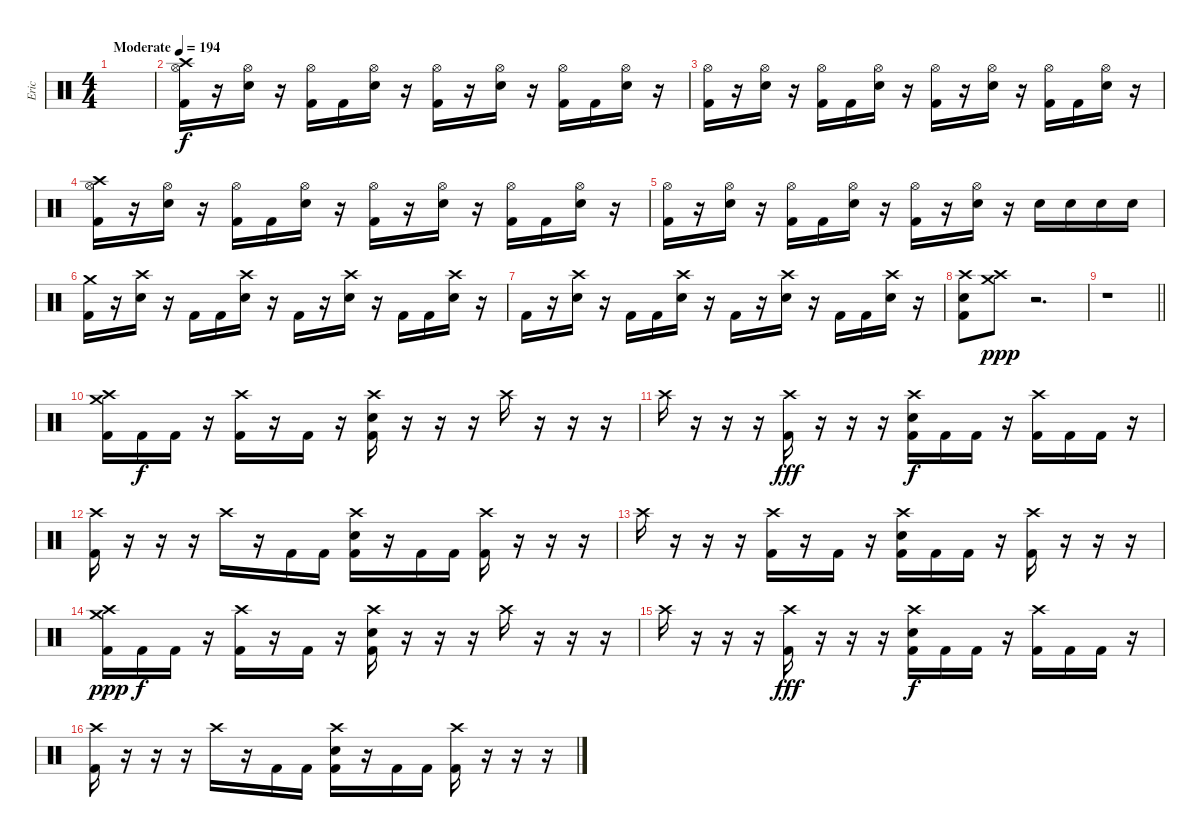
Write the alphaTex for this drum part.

\track ("Eric" "Eric") {instrument percussion}
\staff {score}
\articulation defaults
\ts (4 4)
\tempo (194 "Moderate")
\clef neutral
\ks c
|
("Crash high (hit)" "Hi-Hat (open)" "Kick (hit) 2").16 r.16 ("Hi-Hat (open)" "Electric Snare (hit)").16 r.16 ("Hi-Hat (open)" "Kick (hit) 2").16 "Kick (hit) 2".16 ("Hi-Hat (open)" "Electric Snare (hit)").16 r.16 ("Hi-Hat (open)" "Kick (hit) 2").16 r.16 ("Hi-Hat (open)" "Electric Snare (hit)").16 r.16 ("Hi-Hat (open)" "Kick (hit) 2").16 "Kick (hit) 2".16 ("Hi-Hat (open)" "Electric Snare (hit)").16 r.16 |
("Hi-Hat (open)" "Kick (hit) 2").16 r.16 ("Hi-Hat (open)" "Electric Snare (hit)").16 r.16 ("Hi-Hat (open)" "Kick (hit) 2").16 "Kick (hit) 2".16 ("Hi-Hat (open)" "Electric Snare (hit)").16 r.16 ("Hi-Hat (open)" "Kick (hit) 2").16 r.16 ("Hi-Hat (open)" "Electric Snare (hit)").16 r.16 ("Hi-Hat (open)" "Kick (hit) 2").16 "Kick (hit) 2".16 ("Hi-Hat (open)" "Electric Snare (hit)").16 r.16 |
("Crash high (hit)" "Hi-Hat (open)" "Kick (hit) 2").16 r.16 ("Hi-Hat (open)" "Electric Snare (hit)").16 r.16 ("Hi-Hat (open)" "Kick (hit) 2").16 "Kick (hit) 2".16 ("Hi-Hat (open)" "Electric Snare (hit)").16 r.16 ("Hi-Hat (open)" "Kick (hit) 2").16 r.16 ("Hi-Hat (open)" "Electric Snare (hit)").16 r.16 ("Hi-Hat (open)" "Kick (hit) 2").16 "Kick (hit) 2".16 ("Hi-Hat (open)" "Electric Snare (hit)").16 r.16 |
("Hi-Hat (open)" "Kick (hit) 2").16 r.16 ("Hi-Hat (open)" "Electric Snare (hit)").16 r.16 ("Hi-Hat (open)" "Kick (hit) 2").16 "Kick (hit) 2".16 ("Hi-Hat (open)" "Electric Snare (hit)").16 r.16 ("Hi-Hat (open)" "Kick (hit) 2").16 r.16 ("Hi-Hat (open)" "Electric Snare (hit)").16 r.16 "Electric Snare (hit)".16 "Electric Snare (hit)".16 "Electric Snare (hit)".16 "Electric Snare (hit)".16 |
("Crash medium (hit)" "Kick (hit) 2").16 r.16 ("Crash high (hit)" "Electric Snare (hit)").16 r.16 "Kick (hit) 2".16 "Kick (hit) 2".16 ("Crash high (hit)" "Electric Snare (hit)").16 r.16 "Kick (hit) 2".16 r.16 ("Crash high (hit)" "Electric Snare (hit)").16 r.16 "Kick (hit) 2".16 "Kick (hit) 2".16 ("Crash high (hit)" "Electric Snare (hit)").16 r.16 |
"Kick (hit) 2".16 r.16 ("Crash high (hit)" "Electric Snare (hit)").16 r.16 "Kick (hit) 2".16 "Kick (hit) 2".16 ("Crash high (hit)" "Electric Snare (hit)").16 r.16 "Kick (hit) 2".16 r.16 ("Crash high (hit)" "Electric Snare (hit)").16 r.16 "Kick (hit) 2".16 "Kick (hit) 2".16 ("Crash high (hit)" "Electric Snare (hit)").16 r.16 |
("Crash high (hit)" "Electric Snare (hit)" "Kick (hit) 2").8 ("Crash high (hit)" "Crash medium (hit)").8{dy ppp} r.2{d} |
\barLineRight lightlight
r.1 |
\section ("" "")
("Crash medium (hit)" "Crash high (hit)" "Kick (hit) 2").16 "Kick (hit) 2".16{dy f} "Kick (hit) 2".16 r.16 ("Crash high (hit)" "Kick (hit) 2").16 r.16 "Kick (hit) 2".16 r.16 ("Crash high (hit)" "Electric Snare (hit)" "Kick (hit) 2").16 r.16 r.16 r.16 "Crash high (hit)".16 r.16 r.16 r.16 |
"Crash high (hit)".16 r.16 r.16 r.16 ("Crash high (hit)" "Kick (hit) 2").16{dy fff} r.16 r.16 r.16 ("Crash high (hit)" "Electric Snare (hit)" "Kick (hit) 2").16{dy f} "Kick (hit) 2".16 "Kick (hit) 2".16 r.16 ("Crash high (hit)" "Kick (hit) 2").16 "Kick (hit) 2".16 "Kick (hit) 2".16 r.16 |
("Crash high (hit)" "Kick (hit) 2").16 r.16 r.16 r.16 "Crash high (hit)".16 r.16 "Kick (hit) 2".16 "Kick (hit) 2".16 ("Crash high (hit)" "Electric Snare (hit)" "Kick (hit) 2").16 r.16 "Kick (hit) 2".16 "Kick (hit) 2".16 ("Crash high (hit)" "Kick (hit) 2").16 r.16 r.16 r.16 |
"Crash high (hit)".16 r.16 r.16 r.16 ("Crash high (hit)" "Kick (hit) 2").16 r.16 "Kick (hit) 2".16 r.16 ("Crash high (hit)" "Electric Snare (hit)" "Kick (hit) 2").16 "Kick (hit) 2".16 "Kick (hit) 2".16 r.16 ("Crash high (hit)" "Kick (hit) 2").16 r.16 r.16 r.16 |
("Crash medium (hit)" "Crash high (hit)" "Kick (hit) 2").16{dy ppp} "Kick (hit) 2".16{dy f} "Kick (hit) 2".16 r.16 ("Crash high (hit)" "Kick (hit) 2").16 r.16 "Kick (hit) 2".16 r.16 ("Crash high (hit)" "Electric Snare (hit)" "Kick (hit) 2").16 r.16 r.16 r.16 "Crash high (hit)".16 r.16 r.16 r.16 |
"Crash high (hit)".16 r.16 r.16 r.16 ("Crash high (hit)" "Kick (hit) 2").16{dy fff} r.16 r.16 r.16 ("Crash high (hit)" "Electric Snare (hit)" "Kick (hit) 2").16{dy f} "Kick (hit) 2".16 "Kick (hit) 2".16 r.16 ("Crash high (hit)" "Kick (hit) 2").16 "Kick (hit) 2".16 "Kick (hit) 2".16 r.16 |
("Crash high (hit)" "Kick (hit) 2").16 r.16 r.16 r.16 "Crash high (hit)".16 r.16 "Kick (hit) 2".16 "Kick (hit) 2".16 ("Crash high (hit)" "Electric Snare (hit)" "Kick (hit) 2").16 r.16 "Kick (hit) 2".16 "Kick (hit) 2".16 ("Crash high (hit)" "Kick (hit) 2").16 r.16 r.16 r.16
